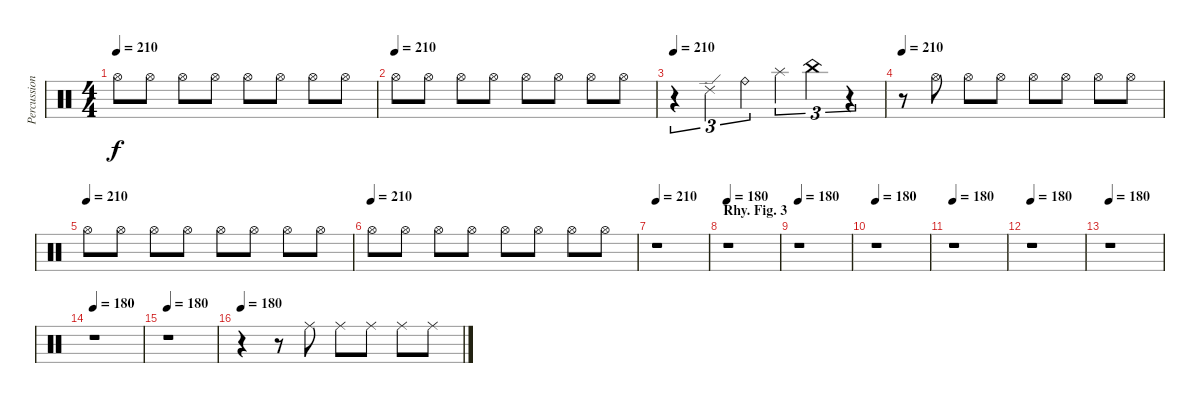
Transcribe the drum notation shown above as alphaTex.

\track ("Percussion" "Percussion") {instrument percussion}
\staff {score}
\articulation defaults
\ts (4 4)
\tempo 210
\clef neutral
\ks c "Hi-Hat (open)".8{dy f} "Hi-Hat (open)".8 "Hi-Hat (open)".8 "Hi-Hat (open)".8 "Hi-Hat (open)".8 "Hi-Hat (open)".8 "Hi-Hat (open)".8 "Hi-Hat (open)".8
|
\tempo (210)
"Hi-Hat (open)".8 "Hi-Hat (open)".8 "Hi-Hat (open)".8 "Hi-Hat (open)".8 "Hi-Hat (open)".8 "Hi-Hat (open)".8 "Hi-Hat (open)".8 "Hi-Hat (open)".8 |
\tempo 210
r.4{tu (3 2)} "Ride (edge) 2".4{tu (3 2)} "Ride (bell)".4{tu (3 2)} "Splash (hit)".4{tu (3 2)} "China (hit)".4{tu (3 2)} r.4{tu (3 2)} |
\tempo 210
r.8 "Hi-Hat (open)".8 "Hi-Hat (open)".8 "Hi-Hat (open)".8 "Hi-Hat (open)".8 "Hi-Hat (open)".8 "Hi-Hat (open)".8 "Hi-Hat (open)".8 |
\tempo (210)
"Hi-Hat (open)".8 "Hi-Hat (open)".8 "Hi-Hat (open)".8 "Hi-Hat (open)".8 "Hi-Hat (open)".8 "Hi-Hat (open)".8 "Hi-Hat (open)".8 "Hi-Hat (open)".8 |
\tempo (210)
"Hi-Hat (open)".8 "Hi-Hat (open)".8 "Hi-Hat (open)".8 "Hi-Hat (open)".8 "Hi-Hat (open)".8 "Hi-Hat (open)".8 "Hi-Hat (open)".8 "Hi-Hat (open)".8 |
\tempo 210
r.1 |
\section ("" "Rhy. Fig. 3")
\tempo 180
r.1 |
\tempo 180
r.1 |
\tempo 180
r.1 |
\tempo 180
r.1 |
\tempo 180
r.1 |
\tempo 180
r.1 |
\tempo 180
r.1 |
\tempo 180
r.1 |
\tempo 180
r.4 r.8 "Ride (middle)".8 "Ride (middle)".8 "Ride (middle)".8 "Ride (middle)".8 "Ride (middle)".8
